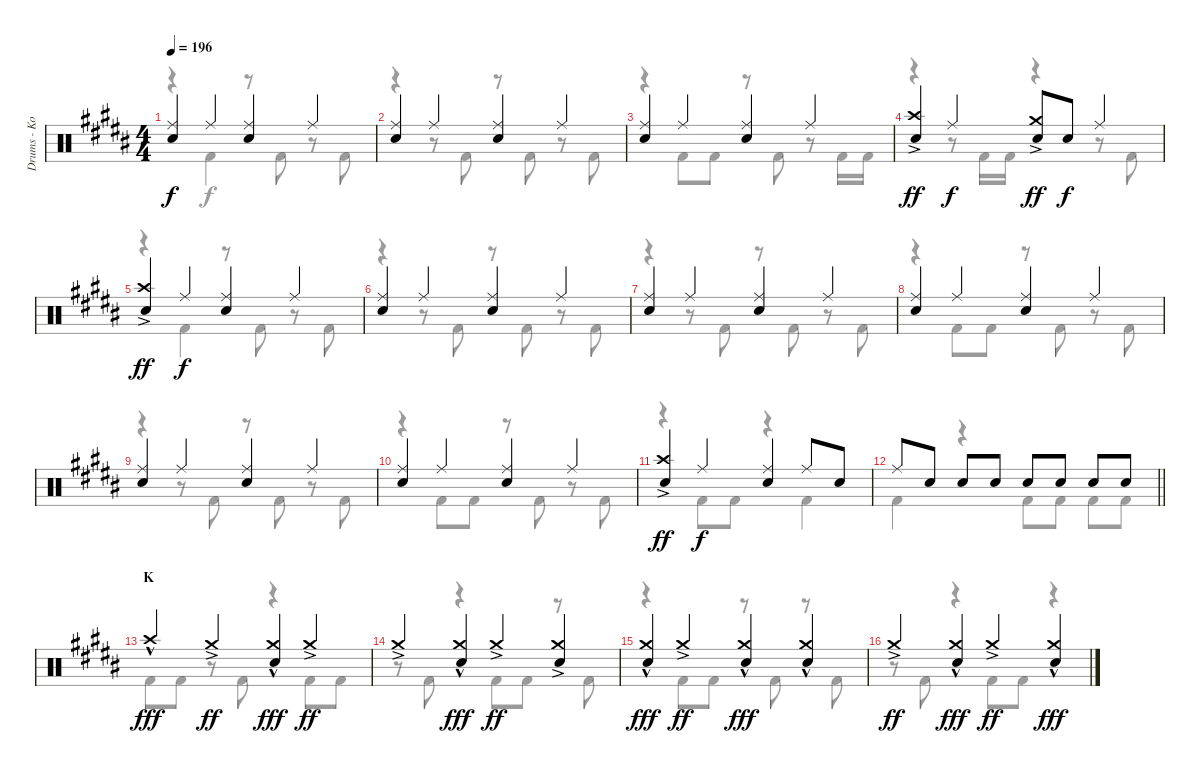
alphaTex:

\track ("Drums - Koji Hasegawa" "Drums - Ko") {instrument percussion}
\staff {score}
\articulation defaults
\voice
\ts (4 4)
\tempo 196
\clef neutral
\ks b
("Ride (middle)" "Snare (hit) 2").4{dy f} "Ride (middle)".4 ("Ride (middle)" "Snare (hit) 2").4 "Ride (middle)".4 |
("Ride (middle)" "Snare (hit) 2").4 "Ride (middle)".4 ("Ride (middle)" "Snare (hit) 2").4 "Ride (middle)".4 |
("Ride (middle)" "Snare (hit) 2").4 "Ride (middle)".4 ("Ride (middle)" "Snare (hit) 2").4 "Ride (middle)".4 |
("Crash high (hit)"{ac} "Snare (hit) 2").4{dy ff} "Ride (middle)".4{dy f} ("Crash medium (hit)"{ac} "Snare (hit) 2").8{dy ff} "Snare (hit) 2".8{dy f} "Ride (middle)".4 |
("Crash high (hit)"{ac} "Snare (hit) 2").4{dy ff} "Ride (middle)".4{dy f} ("Ride (middle)" "Snare (hit) 2").4 "Ride (middle)".4 |
("Ride (middle)" "Snare (hit) 2").4 "Ride (middle)".4 ("Ride (middle)" "Snare (hit) 2").4 "Ride (middle)".4 |
("Ride (middle)" "Snare (hit) 2").4 "Ride (middle)".4 ("Ride (middle)" "Snare (hit) 2").4 "Ride (middle)".4 |
("Ride (middle)" "Snare (hit) 2").4 "Ride (middle)".4 ("Ride (middle)" "Snare (hit) 2").4 "Ride (middle)".4 |
("Ride (middle)" "Snare (hit) 2").4 "Ride (middle)".4 ("Ride (middle)" "Snare (hit) 2").4 "Ride (middle)".4 |
("Ride (middle)" "Snare (hit) 2").4 "Ride (middle)".4 ("Ride (middle)" "Snare (hit) 2").4 "Ride (middle)".4 |
("Crash high (hit)"{ac} "Snare (hit) 2").4{dy ff} "Ride (middle)".4{dy f} ("Ride (middle)" "Snare (hit) 2").4 "Ride (middle)".8 "Snare (hit) 2".8 |
\barLineRight lightlight "Ride (middle)".8 "Snare (hit) 2".8 "Snare (hit) 2".8 "Snare (hit) 2".8 "Snare (hit) 2".8 "Snare (hit) 2".8 "Snare (hit) 2".8 "Snare (hit) 2".8
|
\section ("" "K")
"Crash high (hit)"{hac}.4{dy fff} "Crash medium (hit)"{ac}.4{dy ff} ("Crash medium (hit)"{hac} "Snare (hit) 2").4{dy fff} "Crash medium (hit)"{ac}.4{dy ff} |
"Crash medium (hit)"{ac}.4 ("Crash medium (hit)"{hac} "Snare (hit) 2").4{dy fff} "Crash medium (hit)"{ac}.4{dy ff} ("Crash medium (hit)"{ac} "Snare (hit) 2").4 |
("Crash medium (hit)"{hac} "Snare (hit) 2").4{dy fff} "Crash medium (hit)"{ac}.4{dy ff} ("Crash medium (hit)"{hac} "Snare (hit) 2").4{dy fff} ("Crash medium (hit)"{hac} "Snare (hit) 2").4 |
"Crash medium (hit)"{ac}.4{dy ff} ("Crash medium (hit)"{hac} "Snare (hit) 2").4{dy fff} "Crash medium (hit)"{ac}.4{dy ff} ("Crash medium (hit)"{hac} "Snare (hit) 2").4{dy fff}
\voice
\clef neutral
\ottava regular
\simile none
\ks b
r.4{dy f} "Kick (hit) 2".4 r.8 "Kick (hit) 2".8 r.8 "Kick (hit) 2".8 |
r.4 r.8 "Kick (hit) 2".8 r.8 "Kick (hit) 2".8 r.8 "Kick (hit) 2".8 |
r.4 "Kick (hit) 2".8 "Kick (hit) 2".8 r.8 "Kick (hit) 2".8 r.8 "Kick (hit) 2".16 "Kick (hit) 2".16 |
r.4 r.8 "Kick (hit) 2".16 "Kick (hit) 2".16 r.4 r.8 "Kick (hit) 2".8 |
r.4 "Kick (hit) 2".4 r.8 "Kick (hit) 2".8 r.8 "Kick (hit) 2".8 |
r.4 r.8 "Kick (hit) 2".8 r.8 "Kick (hit) 2".8 r.8 "Kick (hit) 2".8 |
r.4 r.8 "Kick (hit) 2".8 r.8 "Kick (hit) 2".8 r.8 "Kick (hit) 2".8 |
r.4 "Kick (hit) 2".8 "Kick (hit) 2".8 r.8 "Kick (hit) 2".8 r.8 "Kick (hit) 2".8 |
r.4 r.8 "Kick (hit) 2".8 r.8 "Kick (hit) 2".8 r.8 "Kick (hit) 2".8 |
r.4 "Kick (hit) 2".8 "Kick (hit) 2".8 r.8 "Kick (hit) 2".8 r.8 "Kick (hit) 2".8 |
r.4 "Kick (hit) 2".8 "Kick (hit) 2".8 r.4 "Kick (hit) 2".4 |
\barLineRight lightlight "Kick (hit) 2".4
r.4 "Kick (hit) 2".8 "Kick (hit) 2".8 "Kick (hit) 2".8 "Kick (hit) 2".8 |
"Kick (hit) 2".8 "Kick (hit) 2".8 r.8 "Kick (hit) 2".8 r.4 "Kick (hit) 2".8 "Kick (hit) 2".8 |
r.8 "Kick (hit) 2".8 r.4 "Kick (hit) 2".8 "Kick (hit) 2".8 r.8 "Kick (hit) 2".8 |
r.4 "Kick (hit) 2".8 "Kick (hit) 2".8 r.8 "Kick (hit) 2".8 r.8 "Kick (hit) 2".8 |
r.8 "Kick (hit) 2".8 r.4 "Kick (hit) 2".8 "Kick (hit) 2".8 r.4
